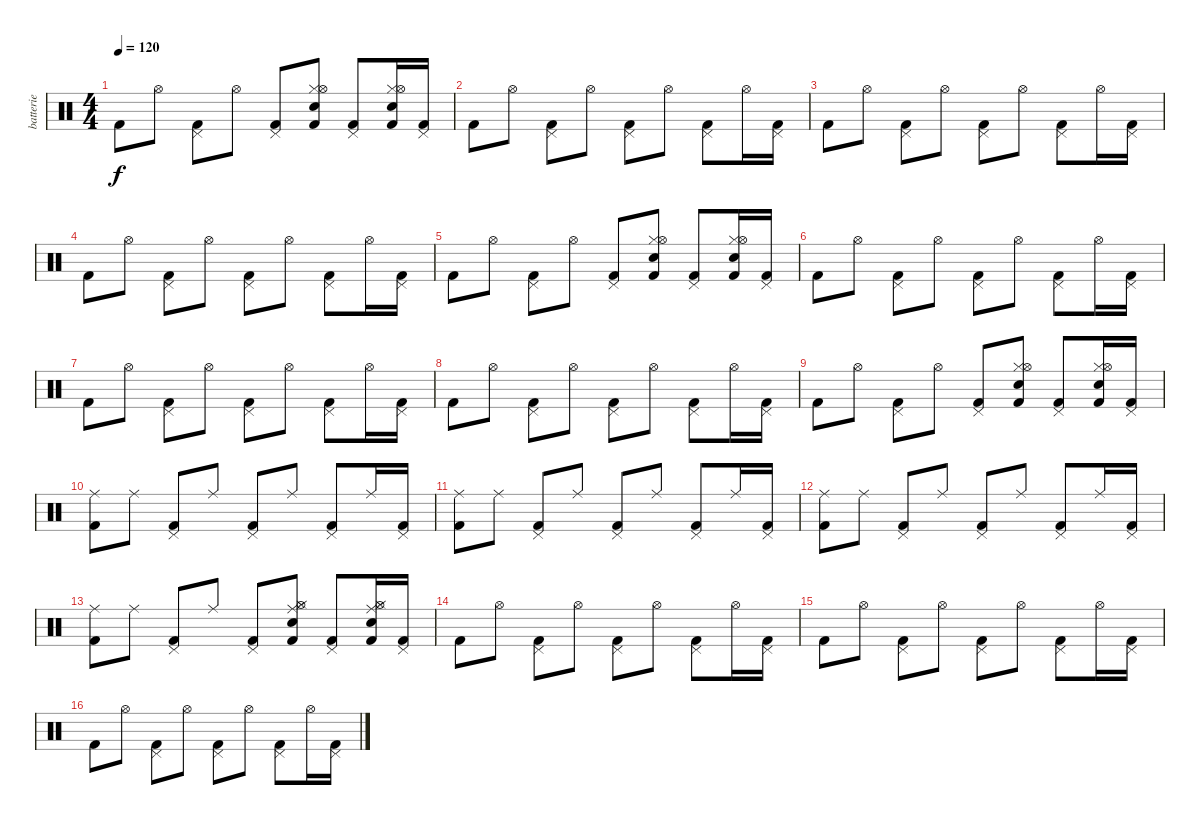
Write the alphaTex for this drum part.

\track ("batterie" "batterie") {instrument percussion}
\staff {score}
\articulation defaults
\ts (4 4)
\tempo 120
\clef neutral
\ks c "Kick (hit) 2".8{dy f} "Hi-Hat (open)".8
("Kick (hit) 2" "Pedal Hi-Hat (hit)").8 "Hi-Hat (open)".8 ("Kick (hit) 2" "Pedal Hi-Hat (hit)").8 ("Kick (hit) 2" "Hi-Hat (closed)" "Electric Snare (hit)" "Hi-Hat (open)").8 ("Kick (hit) 2" "Pedal Hi-Hat (hit)").8 ("Kick (hit) 2" "Hi-Hat (closed)" "Electric Snare (hit)" "Hi-Hat (open)").16 ("Kick (hit) 2" "Pedal Hi-Hat (hit)").16 |
"Kick (hit) 2".8 "Hi-Hat (open)".8 ("Kick (hit) 2" "Pedal Hi-Hat (hit)").8 "Hi-Hat (open)".8 ("Kick (hit) 2" "Pedal Hi-Hat (hit)").8 "Hi-Hat (open)".8 ("Kick (hit) 2" "Pedal Hi-Hat (hit)").8 "Hi-Hat (open)".16 ("Kick (hit) 2" "Pedal Hi-Hat (hit)").16 |
"Kick (hit) 2".8 "Hi-Hat (open)".8 ("Kick (hit) 2" "Pedal Hi-Hat (hit)").8 "Hi-Hat (open)".8 ("Kick (hit) 2" "Pedal Hi-Hat (hit)").8 "Hi-Hat (open)".8 ("Kick (hit) 2" "Pedal Hi-Hat (hit)").8 "Hi-Hat (open)".16 ("Kick (hit) 2" "Pedal Hi-Hat (hit)").16 |
"Kick (hit) 2".8 "Hi-Hat (open)".8 ("Kick (hit) 2" "Pedal Hi-Hat (hit)").8 "Hi-Hat (open)".8 ("Kick (hit) 2" "Pedal Hi-Hat (hit)").8 "Hi-Hat (open)".8 ("Kick (hit) 2" "Pedal Hi-Hat (hit)").8 "Hi-Hat (open)".16 ("Kick (hit) 2" "Pedal Hi-Hat (hit)").16 |
"Kick (hit) 2".8 "Hi-Hat (open)".8 ("Kick (hit) 2" "Pedal Hi-Hat (hit)").8 "Hi-Hat (open)".8 ("Kick (hit) 2" "Pedal Hi-Hat (hit)").8 ("Kick (hit) 2" "Hi-Hat (closed)" "Electric Snare (hit)" "Hi-Hat (open)").8 ("Kick (hit) 2" "Pedal Hi-Hat (hit)").8 ("Kick (hit) 2" "Hi-Hat (closed)" "Electric Snare (hit)" "Hi-Hat (open)").16 ("Kick (hit) 2" "Pedal Hi-Hat (hit)").16 |
"Kick (hit) 2".8 "Hi-Hat (open)".8 ("Kick (hit) 2" "Pedal Hi-Hat (hit)").8 "Hi-Hat (open)".8 ("Kick (hit) 2" "Pedal Hi-Hat (hit)").8 "Hi-Hat (open)".8 ("Kick (hit) 2" "Pedal Hi-Hat (hit)").8 "Hi-Hat (open)".16 ("Kick (hit) 2" "Pedal Hi-Hat (hit)").16 |
"Kick (hit) 2".8 "Hi-Hat (open)".8 ("Kick (hit) 2" "Pedal Hi-Hat (hit)").8 "Hi-Hat (open)".8 ("Kick (hit) 2" "Pedal Hi-Hat (hit)").8 "Hi-Hat (open)".8 ("Kick (hit) 2" "Pedal Hi-Hat (hit)").8 "Hi-Hat (open)".16 ("Kick (hit) 2" "Pedal Hi-Hat (hit)").16 |
"Kick (hit) 2".8 "Hi-Hat (open)".8 ("Kick (hit) 2" "Pedal Hi-Hat (hit)").8 "Hi-Hat (open)".8 ("Kick (hit) 2" "Pedal Hi-Hat (hit)").8 "Hi-Hat (open)".8 ("Kick (hit) 2" "Pedal Hi-Hat (hit)").8 "Hi-Hat (open)".16 ("Kick (hit) 2" "Pedal Hi-Hat (hit)").16 |
"Kick (hit) 2".8 "Hi-Hat (open)".8 ("Kick (hit) 2" "Pedal Hi-Hat (hit)").8 "Hi-Hat (open)".8 ("Kick (hit) 2" "Pedal Hi-Hat (hit)").8 ("Kick (hit) 2" "Hi-Hat (closed)" "Electric Snare (hit)" "Hi-Hat (open)").8 ("Kick (hit) 2" "Pedal Hi-Hat (hit)").8 ("Kick (hit) 2" "Hi-Hat (closed)" "Electric Snare (hit)" "Hi-Hat (open)").16 ("Kick (hit) 2" "Pedal Hi-Hat (hit)").16 |
("Kick (hit) 2" "Ride (middle)").8 "Ride (middle)".8 ("Kick (hit) 2" "Pedal Hi-Hat (hit)").8 "Ride (middle)".8 ("Kick (hit) 2" "Pedal Hi-Hat (hit)").8 "Ride (middle)".8 ("Kick (hit) 2" "Pedal Hi-Hat (hit)").8 "Ride (middle)".16 ("Kick (hit) 2" "Pedal Hi-Hat (hit)").16 |
("Kick (hit) 2" "Ride (middle)").8 "Ride (middle)".8 ("Kick (hit) 2" "Pedal Hi-Hat (hit)").8 "Ride (middle)".8 ("Kick (hit) 2" "Pedal Hi-Hat (hit)").8 "Ride (middle)".8 ("Kick (hit) 2" "Pedal Hi-Hat (hit)").8 "Ride (middle)".16 ("Kick (hit) 2" "Pedal Hi-Hat (hit)").16 |
("Kick (hit) 2" "Ride (middle)").8 "Ride (middle)".8 ("Kick (hit) 2" "Pedal Hi-Hat (hit)").8 "Ride (middle)".8 ("Kick (hit) 2" "Pedal Hi-Hat (hit)").8 "Ride (middle)".8 ("Kick (hit) 2" "Pedal Hi-Hat (hit)").8 "Ride (middle)".16 ("Kick (hit) 2" "Pedal Hi-Hat (hit)").16 |
("Kick (hit) 2" "Ride (middle)").8 "Ride (middle)".8 ("Kick (hit) 2" "Pedal Hi-Hat (hit)").8 "Ride (middle)".8 ("Kick (hit) 2" "Pedal Hi-Hat (hit)").8 ("Kick (hit) 2" "Hi-Hat (closed)" "Electric Snare (hit)" "Hi-Hat (open)" "Ride (middle)").8 ("Kick (hit) 2" "Pedal Hi-Hat (hit)").8 ("Kick (hit) 2" "Hi-Hat (closed)" "Electric Snare (hit)" "Hi-Hat (open)" "Ride (middle)").16 ("Kick (hit) 2" "Pedal Hi-Hat (hit)").16 |
"Kick (hit) 2".8 "Hi-Hat (open)".8 ("Kick (hit) 2" "Pedal Hi-Hat (hit)").8 "Hi-Hat (open)".8 ("Kick (hit) 2" "Pedal Hi-Hat (hit)").8 "Hi-Hat (open)".8 ("Kick (hit) 2" "Pedal Hi-Hat (hit)").8 "Hi-Hat (open)".16 ("Kick (hit) 2" "Pedal Hi-Hat (hit)").16 |
"Kick (hit) 2".8 "Hi-Hat (open)".8 ("Kick (hit) 2" "Pedal Hi-Hat (hit)").8 "Hi-Hat (open)".8 ("Kick (hit) 2" "Pedal Hi-Hat (hit)").8 "Hi-Hat (open)".8 ("Kick (hit) 2" "Pedal Hi-Hat (hit)").8 "Hi-Hat (open)".16 ("Kick (hit) 2" "Pedal Hi-Hat (hit)").16 |
"Kick (hit) 2".8 "Hi-Hat (open)".8 ("Kick (hit) 2" "Pedal Hi-Hat (hit)").8 "Hi-Hat (open)".8 ("Kick (hit) 2" "Pedal Hi-Hat (hit)").8 "Hi-Hat (open)".8 ("Kick (hit) 2" "Pedal Hi-Hat (hit)").8 "Hi-Hat (open)".16 ("Kick (hit) 2" "Pedal Hi-Hat (hit)").16
